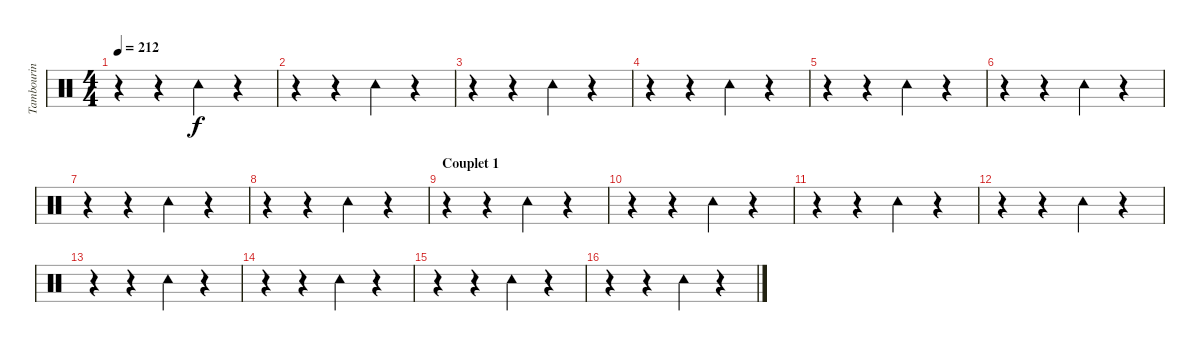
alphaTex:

\track ("Tambourin" "Tambourin") {instrument percussion}
\staff {score}
\articulation defaults
\ts (4 4)
\tempo 212
\clef neutral
\ks c
r.4{dy f} r.4 "Tambourine (hit)".4 r.4 |
r.4 r.4 "Tambourine (hit)".4 r.4 |
r.4 r.4 "Tambourine (hit)".4 r.4 |
r.4 r.4 "Tambourine (hit)".4 r.4 |
r.4 r.4 "Tambourine (hit)".4 r.4 |
r.4 r.4 "Tambourine (hit)".4 r.4 |
r.4 r.4 "Tambourine (hit)".4 r.4 |
r.4 r.4 "Tambourine (hit)".4 r.4 |
\section ("" "Couplet 1")
r.4 r.4 "Tambourine (hit)".4 r.4 |
r.4 r.4 "Tambourine (hit)".4 r.4 |
r.4 r.4 "Tambourine (hit)".4 r.4 |
r.4 r.4 "Tambourine (hit)".4 r.4 |
r.4 r.4 "Tambourine (hit)".4 r.4 |
r.4 r.4 "Tambourine (hit)".4 r.4 |
r.4 r.4 "Tambourine (hit)".4 r.4 |
r.4 r.4 "Tambourine (hit)".4 r.4
